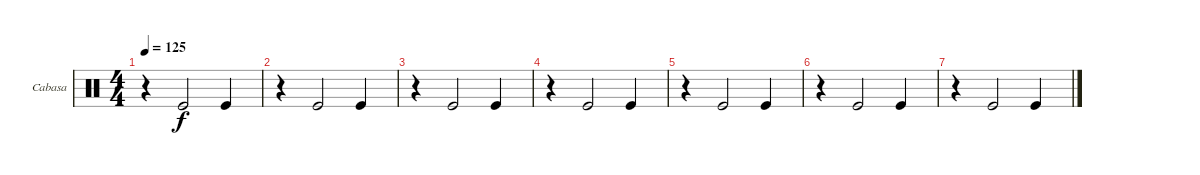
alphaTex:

\bracketExtendMode groupsimilarinstruments
\firstSystemTrackNameOrientation horizontal
\otherSystemsTrackNameOrientation horizontal
\track ("Cabasa" "Cabasa") {instrument percussion}
\staff {score}
\articulation defaults
\ts (4 4)
\tempo 125
\clef neutral
\ks c
r.4{dy f} "Kick (hit)".2 "Kick (hit)".4 |
r.4 "Kick (hit)".2 "Kick (hit)".4 |
r.4 "Kick (hit)".2 "Kick (hit)".4 |
r.4 "Kick (hit)".2 "Kick (hit)".4 |
r.4 "Kick (hit)".2 "Kick (hit)".4 |
r.4 "Kick (hit)".2 "Kick (hit)".4 |
r.4 "Kick (hit)".2 "Kick (hit)".4
